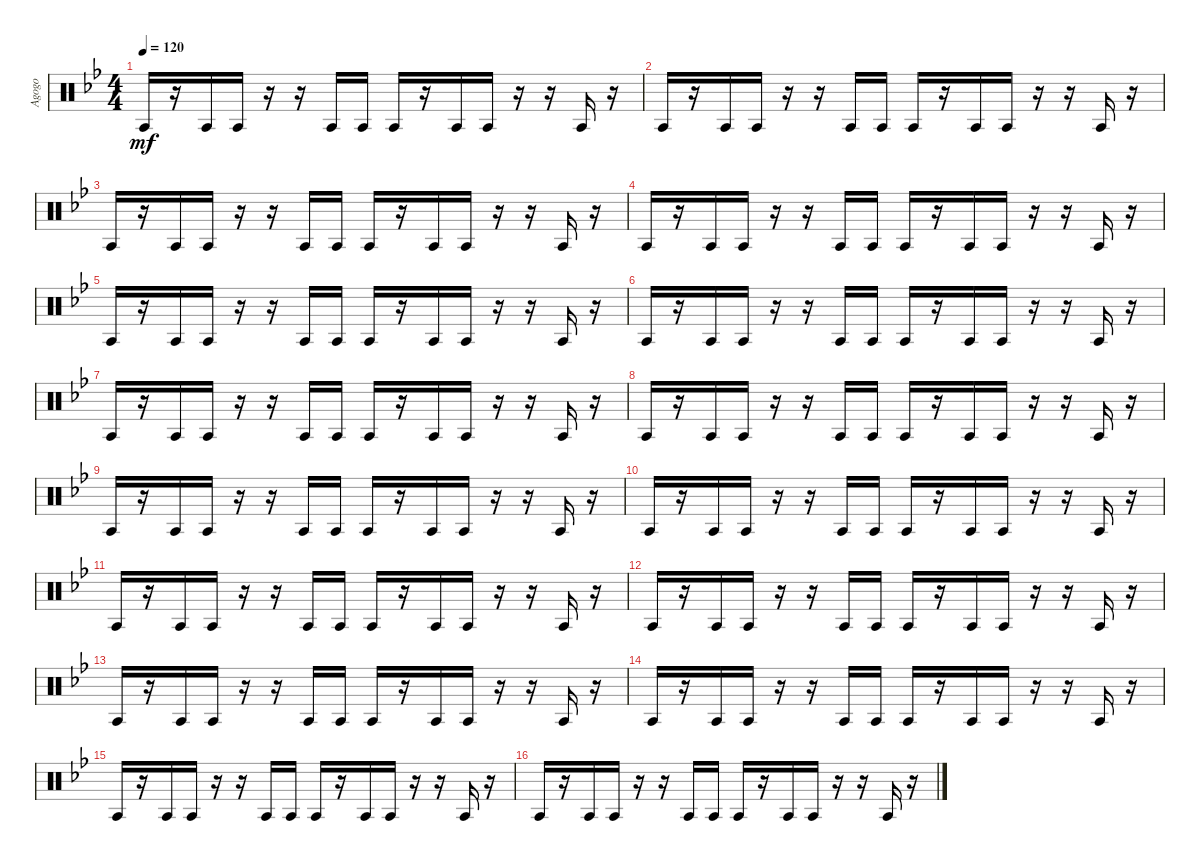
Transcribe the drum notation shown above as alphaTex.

\track ("Agogo" "Agogo") {instrument percussion}
\staff {score}
\articulation defaults
\ts (4 4)
\tempo 120
\clef neutral
\ks bb "Agogo tow (hit)".16{dy mf}
r.16 "Agogo tow (hit)".16 "Agogo tow (hit)".16 r.16 r.16 "Agogo tow (hit)".16 "Agogo tow (hit)".16 "Agogo tow (hit)".16 r.16 "Agogo tow (hit)".16 "Agogo tow (hit)".16 r.16 r.16 "Agogo tow (hit)".16 r.16 |
"Agogo tow (hit)".16 r.16 "Agogo tow (hit)".16 "Agogo tow (hit)".16 r.16 r.16 "Agogo tow (hit)".16 "Agogo tow (hit)".16 "Agogo tow (hit)".16 r.16 "Agogo tow (hit)".16 "Agogo tow (hit)".16 r.16 r.16 "Agogo tow (hit)".16 r.16 |
"Agogo tow (hit)".16 r.16 "Agogo tow (hit)".16 "Agogo tow (hit)".16 r.16 r.16 "Agogo tow (hit)".16 "Agogo tow (hit)".16 "Agogo tow (hit)".16 r.16 "Agogo tow (hit)".16 "Agogo tow (hit)".16 r.16 r.16 "Agogo tow (hit)".16 r.16 |
"Agogo tow (hit)".16 r.16 "Agogo tow (hit)".16 "Agogo tow (hit)".16 r.16 r.16 "Agogo tow (hit)".16 "Agogo tow (hit)".16 "Agogo tow (hit)".16 r.16 "Agogo tow (hit)".16 "Agogo tow (hit)".16 r.16 r.16 "Agogo tow (hit)".16 r.16 |
"Agogo tow (hit)".16 r.16 "Agogo tow (hit)".16 "Agogo tow (hit)".16 r.16 r.16 "Agogo tow (hit)".16 "Agogo tow (hit)".16 "Agogo tow (hit)".16 r.16 "Agogo tow (hit)".16 "Agogo tow (hit)".16 r.16 r.16 "Agogo tow (hit)".16 r.16 |
"Agogo tow (hit)".16 r.16 "Agogo tow (hit)".16 "Agogo tow (hit)".16 r.16 r.16 "Agogo tow (hit)".16 "Agogo tow (hit)".16 "Agogo tow (hit)".16 r.16 "Agogo tow (hit)".16 "Agogo tow (hit)".16 r.16 r.16 "Agogo tow (hit)".16 r.16 |
"Agogo tow (hit)".16 r.16 "Agogo tow (hit)".16 "Agogo tow (hit)".16 r.16 r.16 "Agogo tow (hit)".16 "Agogo tow (hit)".16 "Agogo tow (hit)".16 r.16 "Agogo tow (hit)".16 "Agogo tow (hit)".16 r.16 r.16 "Agogo tow (hit)".16 r.16 |
"Agogo tow (hit)".16 r.16 "Agogo tow (hit)".16 "Agogo tow (hit)".16 r.16 r.16 "Agogo tow (hit)".16 "Agogo tow (hit)".16 "Agogo tow (hit)".16 r.16 "Agogo tow (hit)".16 "Agogo tow (hit)".16 r.16 r.16 "Agogo tow (hit)".16 r.16 |
"Agogo tow (hit)".16 r.16 "Agogo tow (hit)".16 "Agogo tow (hit)".16 r.16 r.16 "Agogo tow (hit)".16 "Agogo tow (hit)".16 "Agogo tow (hit)".16 r.16 "Agogo tow (hit)".16 "Agogo tow (hit)".16 r.16 r.16 "Agogo tow (hit)".16 r.16 |
"Agogo tow (hit)".16 r.16 "Agogo tow (hit)".16 "Agogo tow (hit)".16 r.16 r.16 "Agogo tow (hit)".16 "Agogo tow (hit)".16 "Agogo tow (hit)".16 r.16 "Agogo tow (hit)".16 "Agogo tow (hit)".16 r.16 r.16 "Agogo tow (hit)".16 r.16 |
"Agogo tow (hit)".16 r.16 "Agogo tow (hit)".16 "Agogo tow (hit)".16 r.16 r.16 "Agogo tow (hit)".16 "Agogo tow (hit)".16 "Agogo tow (hit)".16 r.16 "Agogo tow (hit)".16 "Agogo tow (hit)".16 r.16 r.16 "Agogo tow (hit)".16 r.16 |
"Agogo tow (hit)".16 r.16 "Agogo tow (hit)".16 "Agogo tow (hit)".16 r.16 r.16 "Agogo tow (hit)".16 "Agogo tow (hit)".16 "Agogo tow (hit)".16 r.16 "Agogo tow (hit)".16 "Agogo tow (hit)".16 r.16 r.16 "Agogo tow (hit)".16 r.16 |
"Agogo tow (hit)".16 r.16 "Agogo tow (hit)".16 "Agogo tow (hit)".16 r.16 r.16 "Agogo tow (hit)".16 "Agogo tow (hit)".16 "Agogo tow (hit)".16 r.16 "Agogo tow (hit)".16 "Agogo tow (hit)".16 r.16 r.16 "Agogo tow (hit)".16 r.16 |
"Agogo tow (hit)".16 r.16 "Agogo tow (hit)".16 "Agogo tow (hit)".16 r.16 r.16 "Agogo tow (hit)".16 "Agogo tow (hit)".16 "Agogo tow (hit)".16 r.16 "Agogo tow (hit)".16 "Agogo tow (hit)".16 r.16 r.16 "Agogo tow (hit)".16 r.16 |
"Agogo tow (hit)".16 r.16 "Agogo tow (hit)".16 "Agogo tow (hit)".16 r.16 r.16 "Agogo tow (hit)".16 "Agogo tow (hit)".16 "Agogo tow (hit)".16 r.16 "Agogo tow (hit)".16 "Agogo tow (hit)".16 r.16 r.16 "Agogo tow (hit)".16 r.16 |
"Agogo tow (hit)".16 r.16 "Agogo tow (hit)".16 "Agogo tow (hit)".16 r.16 r.16 "Agogo tow (hit)".16 "Agogo tow (hit)".16 "Agogo tow (hit)".16 r.16 "Agogo tow (hit)".16 "Agogo tow (hit)".16 r.16 r.16 "Agogo tow (hit)".16 r.16
